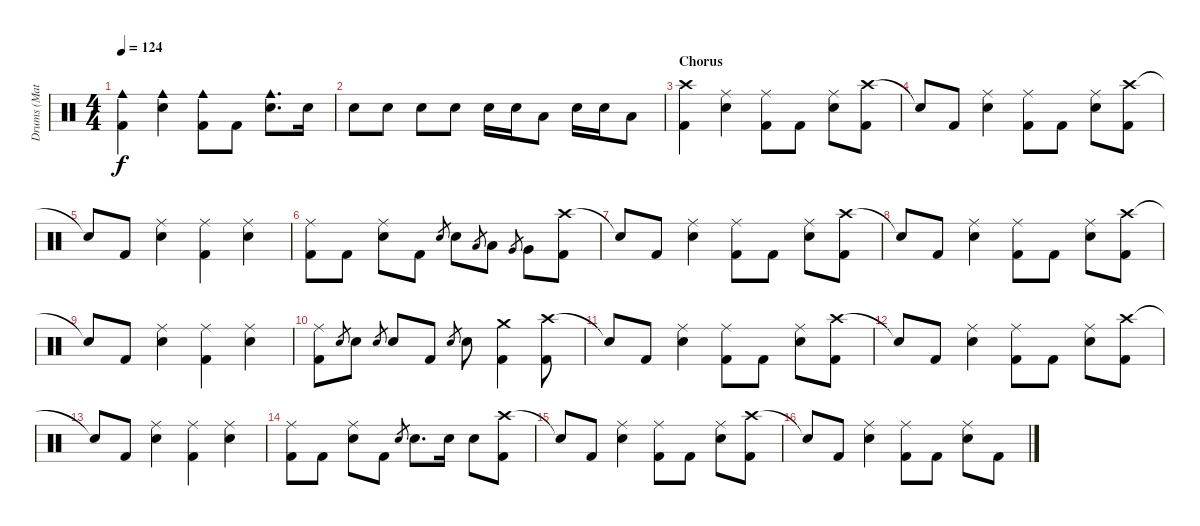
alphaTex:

\track ("Drums (Matt)" "Drums (Mat") {instrument percussion}
\staff {score}
\articulation defaults
\ts (4 4)
\tempo 124
\clef neutral
\ks c
("Cowbell medium (hit)" "Kick (hit) 2").4{dy f} ("Cowbell medium (hit)" "Snare (hit) 2").4 ("Cowbell medium (hit)" "Kick (hit) 2").8 "Kick (hit) 2".8 ("Cowbell medium (hit)" "Snare (hit) 2").8{d} "Snare (hit) 2".16 |
"Snare (hit) 2".8 "Snare (hit) 2".8 "Snare (hit) 2".8 "Snare (hit) 2".8 "Snare (hit) 2".16 "Snare (hit) 2".16 "Low Tom (hit)".8 "Snare (hit) 2".16 "Snare (hit) 2".16 "Low Tom (hit)".8 |
\section ("" "Chorus")
("Crash high (hit)" "Kick (hit) 2").4 ("Ride (middle)" "Snare (hit) 2").4 ("Ride (middle)" "Kick (hit) 2").8 "Kick (hit) 2".8 ("Ride (middle)" "Snare (hit) 2").8 ("Crash high (hit)" "Kick (hit) 2").8 |
"Snare (hit)"{t}.8 "Kick (hit) 2".8 ("Ride (middle)" "Snare (hit) 2").4 ("Ride (middle)" "Kick (hit) 2").8 "Kick (hit) 2".8 ("Ride (middle)" "Snare (hit) 2").8 ("Crash high (hit)" "Kick (hit) 2").8 |
"Snare (hit)"{t}.8 "Kick (hit) 2".8 ("Ride (middle)" "Snare (hit) 2").4 ("Ride (middle)" "Kick (hit) 2").4 ("Ride (middle)" "Snare (hit) 2").4 |
("Ride (middle)" "Kick (hit) 2").8 "Kick (hit) 2".8 ("Ride (middle)" "Snare (hit) 2").8 "Kick (hit) 2".8 "Snare (hit) 2".8{gr} "Snare (hit) 2".8 "Low Tom (hit)".8{gr} "Low Tom (hit)".8 "Very Low Tom (hit)".8{gr} "Very Low Tom (hit)".8 ("Crash high (hit)" "Kick (hit) 2").8 |
"Snare (hit)"{t}.8 "Kick (hit) 2".8 ("Ride (middle)" "Snare (hit) 2").4 ("Ride (middle)" "Kick (hit) 2").8 "Kick (hit) 2".8 ("Ride (middle)" "Snare (hit) 2").8 ("Crash high (hit)" "Kick (hit) 2").8 |
"Snare (hit)"{t}.8 "Kick (hit) 2".8 ("Ride (middle)" "Snare (hit) 2").4 ("Ride (middle)" "Kick (hit) 2").8 "Kick (hit) 2".8 ("Ride (middle)" "Snare (hit) 2").8 ("Crash high (hit)" "Kick (hit) 2").8 |
"Snare (hit)"{t}.8 "Kick (hit) 2".8 ("Ride (middle)" "Snare (hit) 2").4 ("Ride (middle)" "Kick (hit) 2").4 ("Ride (middle)" "Snare (hit) 2").4 |
("Ride (middle)" "Kick (hit) 2").8 "Snare (hit) 2".8{gr} "Snare (hit) 2".8 "Snare (hit) 2".8{gr} "Snare (hit) 2".8 "Kick (hit) 2".8 "Snare (hit) 2".8{gr} "Snare (hit) 2".8 ("Crash medium (hit)" "Kick (hit) 2").4 ("Crash high (hit)" "Kick (hit) 2").8 |
"Snare (hit)"{t}.8 "Kick (hit) 2".8 ("Ride (middle)" "Snare (hit) 2").4 ("Ride (middle)" "Kick (hit) 2").8 "Kick (hit) 2".8 ("Ride (middle)" "Snare (hit) 2").8 ("Crash high (hit)" "Kick (hit) 2").8 |
"Snare (hit)"{t}.8 "Kick (hit) 2".8 ("Ride (middle)" "Snare (hit) 2").4 ("Ride (middle)" "Kick (hit) 2").8 "Kick (hit) 2".8 ("Ride (middle)" "Snare (hit) 2").8 ("Crash high (hit)" "Kick (hit) 2").8 |
"Snare (hit)"{t}.8 "Kick (hit) 2".8 ("Ride (middle)" "Snare (hit) 2").4 ("Ride (middle)" "Kick (hit) 2").4 ("Ride (middle)" "Snare (hit) 2").4 |
("Ride (middle)" "Kick (hit) 2").8 "Kick (hit) 2".8 ("Ride (middle)" "Snare (hit) 2").8 "Kick (hit) 2".8 "Snare (hit) 2".8{gr} "Snare (hit) 2".8{d} "Snare (hit) 2".16 "Snare (hit) 2".8 ("Crash high (hit)" "Kick (hit) 2").8 |
"Snare (hit)"{t}.8 "Kick (hit) 2".8 ("Ride (middle)" "Snare (hit) 2").4 ("Ride (middle)" "Kick (hit) 2").8 "Kick (hit) 2".8 ("Ride (middle)" "Snare (hit) 2").8 ("Crash high (hit)" "Kick (hit) 2").8 |
"Snare (hit)"{t}.8 "Kick (hit) 2".8 ("Ride (middle)" "Snare (hit) 2").4 ("Ride (middle)" "Kick (hit) 2").8 "Kick (hit) 2".8 ("Ride (middle)" "Snare (hit) 2").8 "Kick (hit) 2".8
